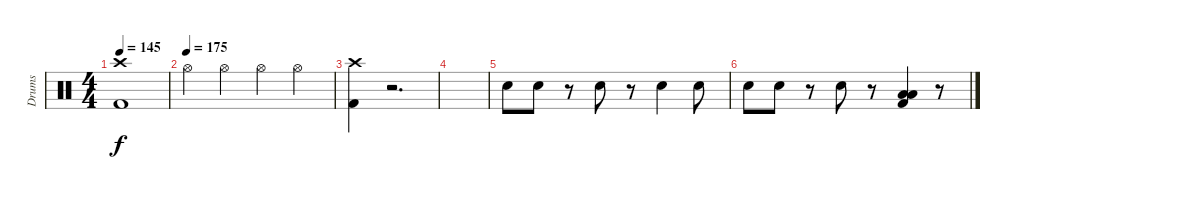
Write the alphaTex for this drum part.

\track ("Drums" "Drums") {instrument percussion}
\staff {score}
\articulation defaults
\ts (4 4)
\tempo 145
\clef neutral
\ks c
("Crash high (hit)" "Kick (hit) 2").1{dy f} |
\tempo (175)
"Hi-Hat (open)".4 "Hi-Hat (open)".4 "Hi-Hat (open)".4 "Hi-Hat (open)".4 |
("Crash high (hit)" "Kick (hit) 2").4 r.2{d} |
|
"Electric Snare (hit)".8 "Electric Snare (hit)".8 r.8 "Electric Snare (hit)".8 r.8 "Electric Snare (hit)".4 "Electric Snare (hit)".8 |
"Electric Snare (hit)".8 "Electric Snare (hit)".8 r.8 "Electric Snare (hit)".8 r.8 ("Low Tom (hit)" "Low Floor Tom (hit)" "Kick (hit) 2").4 r.8
